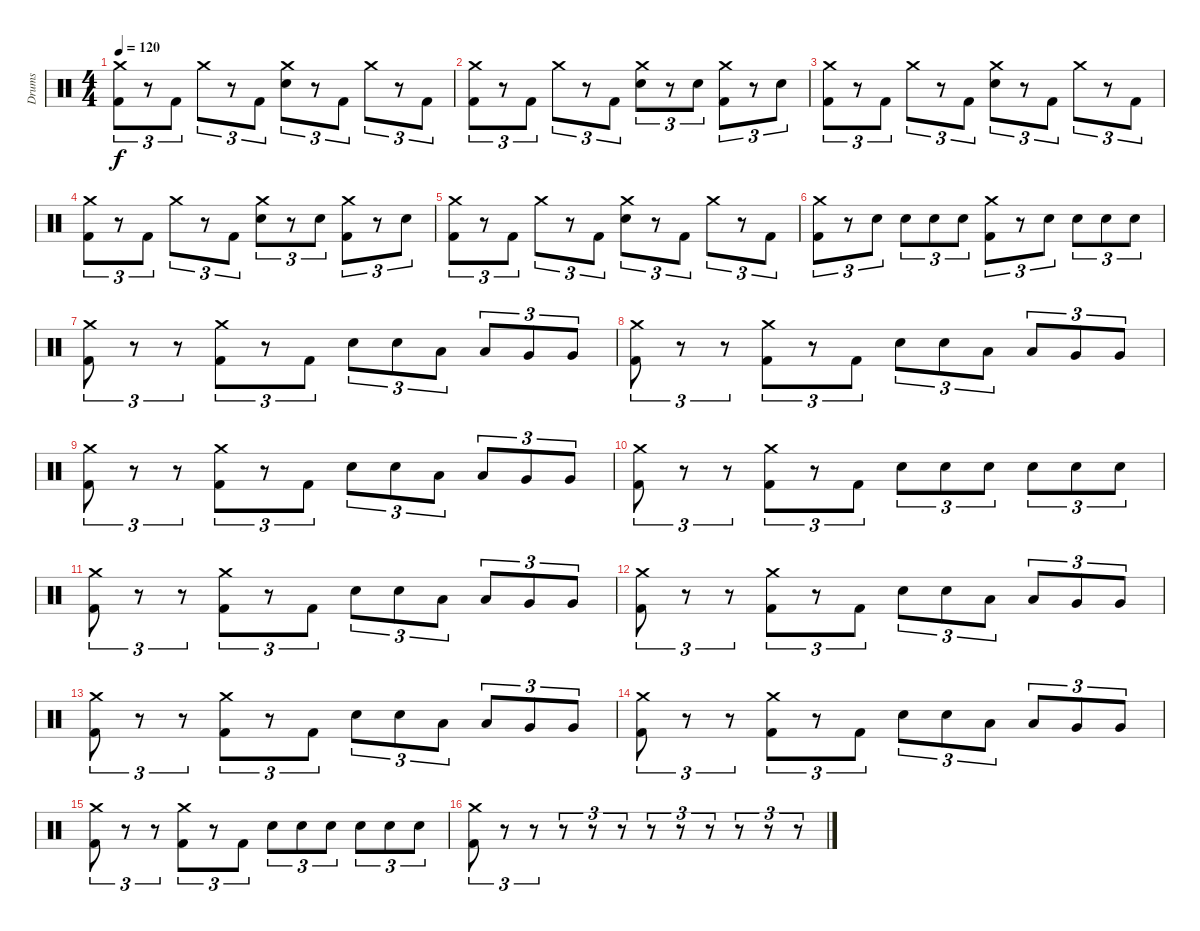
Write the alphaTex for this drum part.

\track ("Drums" "Drums") {instrument percussion}
\staff {score}
\articulation defaults
\ts (4 4)
\tempo 120
\clef neutral
\ks c
("Crash medium (hit)" "Kick (hit) 2").8{tu (3 2) dy f} r.8{tu (3 2)} "Kick (hit) 2".8{tu (3 2)} "Crash medium (hit)".8{tu (3 2)} r.8{tu (3 2)} "Kick (hit) 2".8{tu (3 2)} ("Crash medium (hit)" "Electric Snare (hit)").8{tu (3 2)} r.8{tu (3 2)} "Kick (hit) 2".8{tu (3 2)} "Crash medium (hit)".8{tu (3 2)} r.8{tu (3 2)} "Kick (hit) 2".8{tu (3 2)} |
("Crash medium (hit)" "Kick (hit) 2").8{tu (3 2)} r.8{tu (3 2)} "Kick (hit) 2".8{tu (3 2)} "Crash medium (hit)".8{tu (3 2)} r.8{tu (3 2)} "Kick (hit) 2".8{tu (3 2)} ("Crash medium (hit)" "Electric Snare (hit)").8{tu (3 2)} r.8{tu (3 2)} "Electric Snare (hit)".8{tu (3 2)} ("Crash medium (hit)" "Kick (hit) 2").8{tu (3 2)} r.8{tu (3 2)} "Electric Snare (hit)".8{tu (3 2)} |
("Crash medium (hit)" "Kick (hit) 2").8{tu (3 2)} r.8{tu (3 2)} "Kick (hit) 2".8{tu (3 2)} "Crash medium (hit)".8{tu (3 2)} r.8{tu (3 2)} "Kick (hit) 2".8{tu (3 2)} ("Crash medium (hit)" "Electric Snare (hit)").8{tu (3 2)} r.8{tu (3 2)} "Kick (hit) 2".8{tu (3 2)} "Crash medium (hit)".8{tu (3 2)} r.8{tu (3 2)} "Kick (hit) 2".8{tu (3 2)} |
("Crash medium (hit)" "Kick (hit) 2").8{tu (3 2)} r.8{tu (3 2)} "Kick (hit) 2".8{tu (3 2)} "Crash medium (hit)".8{tu (3 2)} r.8{tu (3 2)} "Kick (hit) 2".8{tu (3 2)} ("Crash medium (hit)" "Electric Snare (hit)").8{tu (3 2)} r.8{tu (3 2)} "Electric Snare (hit)".8{tu (3 2)} ("Crash medium (hit)" "Kick (hit) 2").8{tu (3 2)} r.8{tu (3 2)} "Electric Snare (hit)".8{tu (3 2)} |
("Crash medium (hit)" "Kick (hit) 2").8{tu (3 2)} r.8{tu (3 2)} "Kick (hit) 2".8{tu (3 2)} "Crash medium (hit)".8{tu (3 2)} r.8{tu (3 2)} "Kick (hit) 2".8{tu (3 2)} ("Crash medium (hit)" "Electric Snare (hit)").8{tu (3 2)} r.8{tu (3 2)} "Kick (hit) 2".8{tu (3 2)} "Crash medium (hit)".8{tu (3 2)} r.8{tu (3 2)} "Kick (hit) 2".8{tu (3 2)} |
("Crash medium (hit)" "Kick (hit) 2").8{tu (3 2)} r.8{tu (3 2)} "Electric Snare (hit)".8{tu (3 2)} "Electric Snare (hit)".8{tu (3 2)} "Electric Snare (hit)".8{tu (3 2)} "Electric Snare (hit)".8{tu (3 2)} ("Crash medium (hit)" "Kick (hit) 2").8{tu (3 2)} r.8{tu (3 2)} "Electric Snare (hit)".8{tu (3 2)} "Electric Snare (hit)".8{tu (3 2)} "Electric Snare (hit)".8{tu (3 2)} "Electric Snare (hit)".8{tu (3 2)} |
("Kick (hit) 2" "Crash medium (hit)").8{tu (3 2)} r.8{tu (3 2)} r.8{tu (3 2)} ("Kick (hit) 2" "Crash medium (hit)").8{tu (3 2)} r.8{tu (3 2)} "Kick (hit) 2".8{tu (3 2)} "Electric Snare (hit)".8{tu (3 2)} "Electric Snare (hit)".8{tu (3 2)} "Low Tom (hit)".8{tu (3 2)} "Low Tom (hit)".8{tu (3 2)} "Very Low Tom (hit)".8{tu (3 2)} "Very Low Tom (hit)".8{tu (3 2)} |
("Kick (hit) 2" "Crash medium (hit)").8{tu (3 2)} r.8{tu (3 2)} r.8{tu (3 2)} ("Kick (hit) 2" "Crash medium (hit)").8{tu (3 2)} r.8{tu (3 2)} "Kick (hit) 2".8{tu (3 2)} "Electric Snare (hit)".8{tu (3 2)} "Electric Snare (hit)".8{tu (3 2)} "Low Tom (hit)".8{tu (3 2)} "Low Tom (hit)".8{tu (3 2)} "Very Low Tom (hit)".8{tu (3 2)} "Very Low Tom (hit)".8{tu (3 2)} |
("Kick (hit) 2" "Crash medium (hit)").8{tu (3 2)} r.8{tu (3 2)} r.8{tu (3 2)} ("Kick (hit) 2" "Crash medium (hit)").8{tu (3 2)} r.8{tu (3 2)} "Kick (hit) 2".8{tu (3 2)} "Electric Snare (hit)".8{tu (3 2)} "Electric Snare (hit)".8{tu (3 2)} "Low Tom (hit)".8{tu (3 2)} "Low Tom (hit)".8{tu (3 2)} "Very Low Tom (hit)".8{tu (3 2)} "Very Low Tom (hit)".8{tu (3 2)} |
("Kick (hit) 2" "Crash medium (hit)").8{tu (3 2)} r.8{tu (3 2)} r.8{tu (3 2)} ("Kick (hit) 2" "Crash medium (hit)").8{tu (3 2)} r.8{tu (3 2)} "Kick (hit) 2".8{tu (3 2)} "Electric Snare (hit)".8{tu (3 2)} "Electric Snare (hit)".8{tu (3 2)} "Electric Snare (hit)".8{tu (3 2)} "Electric Snare (hit)".8{tu (3 2)} "Electric Snare (hit)".8{tu (3 2)} "Electric Snare (hit)".8{tu (3 2)} |
("Kick (hit) 2" "Crash medium (hit)").8{tu (3 2)} r.8{tu (3 2)} r.8{tu (3 2)} ("Kick (hit) 2" "Crash medium (hit)").8{tu (3 2)} r.8{tu (3 2)} "Kick (hit) 2".8{tu (3 2)} "Electric Snare (hit)".8{tu (3 2)} "Electric Snare (hit)".8{tu (3 2)} "Low Tom (hit)".8{tu (3 2)} "Low Tom (hit)".8{tu (3 2)} "Very Low Tom (hit)".8{tu (3 2)} "Very Low Tom (hit)".8{tu (3 2)} |
("Kick (hit) 2" "Crash medium (hit)").8{tu (3 2)} r.8{tu (3 2)} r.8{tu (3 2)} ("Kick (hit) 2" "Crash medium (hit)").8{tu (3 2)} r.8{tu (3 2)} "Kick (hit) 2".8{tu (3 2)} "Electric Snare (hit)".8{tu (3 2)} "Electric Snare (hit)".8{tu (3 2)} "Low Tom (hit)".8{tu (3 2)} "Low Tom (hit)".8{tu (3 2)} "Very Low Tom (hit)".8{tu (3 2)} "Very Low Tom (hit)".8{tu (3 2)} |
("Kick (hit) 2" "Crash medium (hit)").8{tu (3 2)} r.8{tu (3 2)} r.8{tu (3 2)} ("Kick (hit) 2" "Crash medium (hit)").8{tu (3 2)} r.8{tu (3 2)} "Kick (hit) 2".8{tu (3 2)} "Electric Snare (hit)".8{tu (3 2)} "Electric Snare (hit)".8{tu (3 2)} "Low Tom (hit)".8{tu (3 2)} "Low Tom (hit)".8{tu (3 2)} "Very Low Tom (hit)".8{tu (3 2)} "Very Low Tom (hit)".8{tu (3 2)} |
("Kick (hit) 2" "Crash medium (hit)").8{tu (3 2)} r.8{tu (3 2)} r.8{tu (3 2)} ("Kick (hit) 2" "Crash medium (hit)").8{tu (3 2)} r.8{tu (3 2)} "Kick (hit) 2".8{tu (3 2)} "Electric Snare (hit)".8{tu (3 2)} "Electric Snare (hit)".8{tu (3 2)} "Low Tom (hit)".8{tu (3 2)} "Low Tom (hit)".8{tu (3 2)} "Very Low Tom (hit)".8{tu (3 2)} "Very Low Tom (hit)".8{tu (3 2)} |
("Kick (hit) 2" "Crash medium (hit)").8{tu (3 2)} r.8{tu (3 2)} r.8{tu (3 2)} ("Kick (hit) 2" "Crash medium (hit)").8{tu (3 2)} r.8{tu (3 2)} "Kick (hit) 2".8{tu (3 2)} "Electric Snare (hit)".8{tu (3 2)} "Electric Snare (hit)".8{tu (3 2)} "Electric Snare (hit)".8{tu (3 2)} "Electric Snare (hit)".8{tu (3 2)} "Electric Snare (hit)".8{tu (3 2)} "Electric Snare (hit)".8{tu (3 2)} |
("Kick (hit) 2" "Crash medium (hit)").8{tu (3 2)} r.8{tu (3 2)} r.8{tu (3 2)} r.8{tu (3 2)} r.8{tu (3 2)} r.8{tu (3 2)} r.8{tu (3 2)} r.8{tu (3 2)} r.8{tu (3 2)} r.8{tu (3 2)} r.8{tu (3 2)} r.8{tu (3 2)}
